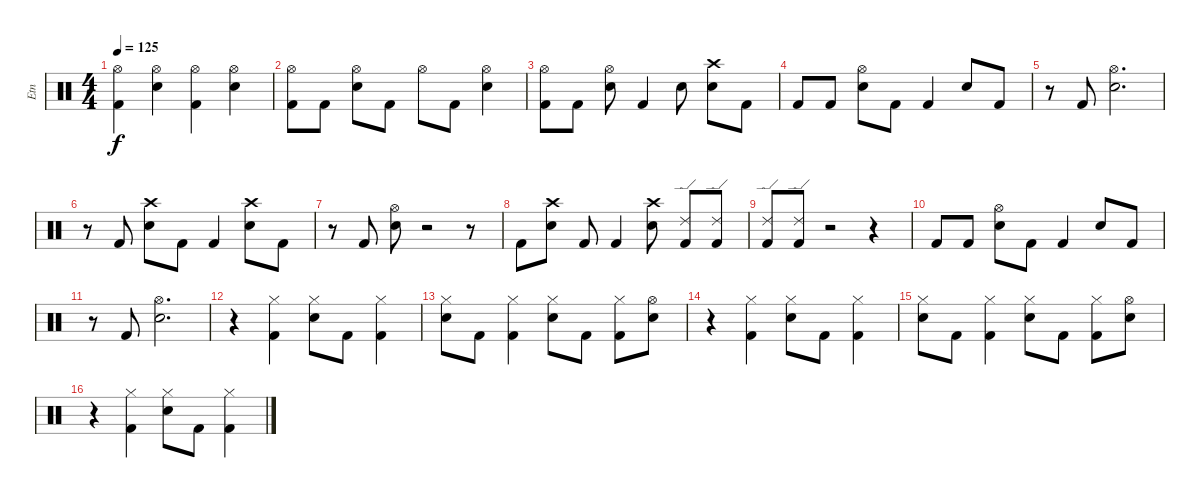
\track ("Etn" "Etn") {instrument percussion}
\staff {score}
\articulation defaults
\ts (4 4)
\tempo 125
\clef neutral
\ks c
("Hi-Hat (open)" "Kick (hit) 2").4{dy f} ("Hi-Hat (open)" "Snare (hit) 2").4 ("Hi-Hat (open)" "Kick (hit) 2").4 ("Hi-Hat (open)" "Snare (hit) 2").4 |
("Hi-Hat (open)" "Kick (hit) 2").8 "Kick (hit) 2".8 ("Hi-Hat (open)" "Snare (hit) 2").8 "Kick (hit) 2".8 "Hi-Hat (open)".8 "Kick (hit) 2".8 ("Hi-Hat (open)" "Snare (hit) 2").4 |
("Hi-Hat (open)" "Kick (hit) 2").8 "Kick (hit) 2".8 ("Hi-Hat (open)" "Snare (hit) 2").8 "Kick (hit) 2".4 "Snare (hit) 2".8 ("Crash high (hit)" "Snare (hit) 2").8 "Kick (hit) 2".8 |
"Kick (hit) 2".8 "Kick (hit) 2".8 ("Hi-Hat (open)" "Snare (hit) 2").8 "Kick (hit) 2".8 "Kick (hit) 2".4 "Snare (hit) 2".8 "Kick (hit) 2".8 |
r.8 "Kick (hit) 2".8 ("Hi-Hat (open)" "Snare (hit) 2").2{d} |
r.8 "Kick (hit) 2".8 ("Crash high (hit)" "Snare (hit) 2").8 "Kick (hit) 2".8 "Kick (hit) 2".4 ("Crash high (hit)" "Snare (hit) 2").8 "Kick (hit) 2".8 |
r.8 "Kick (hit) 2".8 ("Hi-Hat (open)" "Snare (hit) 2").8 r.2 r.8 |
"Kick (hit) 2".8 ("Crash high (hit)" "Snare (hit) 2").8 "Kick (hit) 2".8 "Kick (hit) 2".4 ("Crash high (hit)" "Snare (hit) 2").8 ("Ride (edge) 2" "Kick (hit) 2").8 ("Ride (edge) 2" "Kick (hit) 2").8 |
("Ride (edge) 2" "Kick (hit) 2").8 ("Ride (edge) 2" "Kick (hit) 2").8 r.2 r.4 |
"Kick (hit) 2".8 "Kick (hit) 2".8 ("Hi-Hat (open)" "Snare (hit) 2").8 "Kick (hit) 2".8 "Kick (hit) 2".4 "Snare (hit) 2".8 "Kick (hit) 2".8 |
r.8 "Kick (hit) 2".8 ("Hi-Hat (open)" "Snare (hit) 2").2{d} |
r.4 ("Hi-Hat (closed)" "Kick (hit) 2").4 ("Hi-Hat (closed)" "Snare (hit) 2").8 "Kick (hit) 2".8 ("Hi-Hat (closed)" "Kick (hit) 2").4 |
("Hi-Hat (closed)" "Snare (hit) 2").8 "Kick (hit) 2".8 ("Hi-Hat (closed)" "Kick (hit) 2").4 ("Hi-Hat (closed)" "Snare (hit) 2").8 "Kick (hit) 2".8 ("Hi-Hat (closed)" "Kick (hit) 2").8 ("Hi-Hat (open)" "Snare (hit) 2").8 |
r.4 ("Hi-Hat (closed)" "Kick (hit) 2").4 ("Hi-Hat (closed)" "Snare (hit) 2").8 "Kick (hit) 2".8 ("Hi-Hat (closed)" "Kick (hit) 2").4 |
("Hi-Hat (closed)" "Snare (hit) 2").8 "Kick (hit) 2".8 ("Hi-Hat (closed)" "Kick (hit) 2").4 ("Hi-Hat (closed)" "Snare (hit) 2").8 "Kick (hit) 2".8 ("Hi-Hat (closed)" "Kick (hit) 2").8 ("Hi-Hat (open)" "Snare (hit) 2").8 |
r.4 ("Hi-Hat (closed)" "Kick (hit) 2").4 ("Hi-Hat (closed)" "Snare (hit) 2").8 "Kick (hit) 2".8 ("Hi-Hat (closed)" "Kick (hit) 2").4
